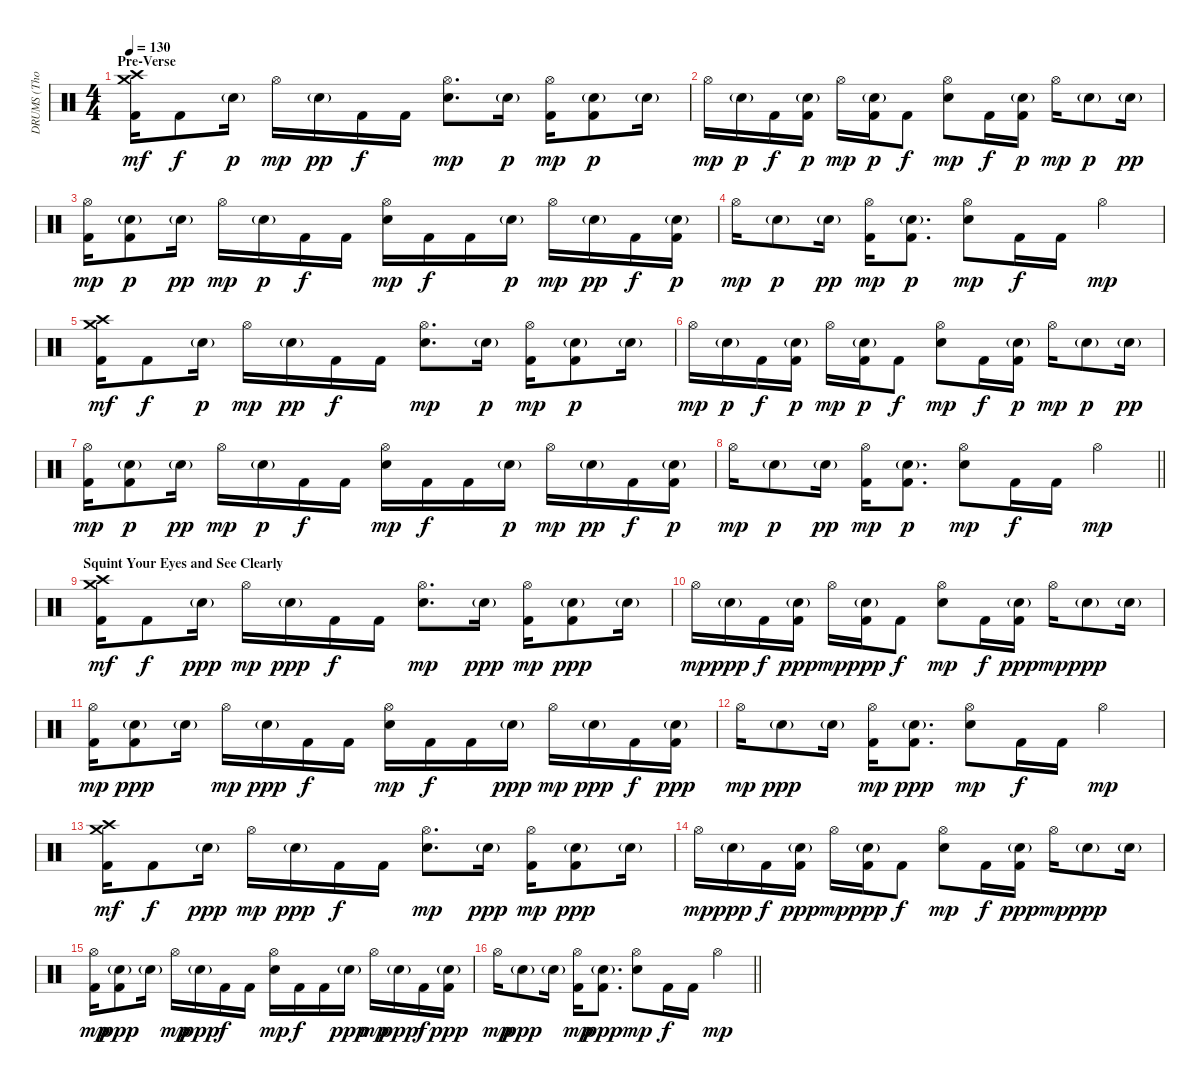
\track ("DRUMS (Thomas Haake)" "DRUMS (Tho") {instrument percussion}
\staff {score}
\articulation defaults
\ts (4 4)
\section ("" "Pre-Verse")
\tempo 130
\clef neutral
\ks c
("Crash high (hit)" "Crash medium (hit)" "Kick (hit) 2").16{dy mf} "Kick (hit) 2".8{dy f} "Electric Snare (hit)"{g}.16{dy p} "Hi-Hat (open)".16{dy mp} "Electric Snare (hit)"{g}.16{dy pp} "Kick (hit) 2".16{dy f} "Kick (hit) 2".16 ("Hi-Hat (open)" "Electric Snare (hit)").8{d dy mp} "Electric Snare (hit)"{g}.16{dy p} ("Hi-Hat (open)" "Kick (hit) 2").16{dy mp} ("Electric Snare (hit)"{g} "Kick (hit) 2").8{dy p} "Electric Snare (hit)"{g}.16 |
"Hi-Hat (open)".16{dy mp} "Electric Snare (hit)"{g}.16{dy p} "Kick (hit) 2".16{dy f} ("Electric Snare (hit)"{g} "Kick (hit) 2").16{dy p} "Hi-Hat (open)".16{dy mp} ("Electric Snare (hit)"{g} "Kick (hit) 2").16{dy p} "Kick (hit) 2".8{dy f} ("Hi-Hat (open)" "Electric Snare (hit)").8{dy mp} "Kick (hit) 2".16{dy f} ("Electric Snare (hit)"{g} "Kick (hit) 2").16{dy p} "Hi-Hat (open)".16{dy mp} "Electric Snare (hit)"{g}.8{dy p} "Electric Snare (hit)"{g}.16{dy pp} |
("Hi-Hat (open)" "Kick (hit) 2").16{dy mp} ("Electric Snare (hit)"{g} "Kick (hit) 2").8{dy p} "Electric Snare (hit)"{g}.16{dy pp} "Hi-Hat (open)".16{dy mp} "Electric Snare (hit)"{g}.16{dy p} "Kick (hit) 2".16{dy f} "Kick (hit) 2".16 ("Hi-Hat (open)" "Electric Snare (hit)").16{dy mp} "Kick (hit) 2".16{dy f} "Kick (hit) 2".16 "Electric Snare (hit)"{g}.16{dy p} "Hi-Hat (open)".16{dy mp} "Electric Snare (hit)"{g}.16{dy pp} "Kick (hit) 2".16{dy f} ("Electric Snare (hit)"{g} "Kick (hit) 2").16{dy p} |
"Hi-Hat (open)".16{dy mp} "Electric Snare (hit)"{g}.8{dy p} "Electric Snare (hit)"{g}.16{dy pp} ("Hi-Hat (open)" "Kick (hit) 2").16{dy mp} ("Electric Snare (hit)"{g} "Kick (hit) 2").8{d dy p} ("Hi-Hat (open)" "Electric Snare (hit)").8{dy mp} "Kick (hit) 2".16{dy f} "Kick (hit) 2".16 "Hi-Hat (open)".4{dy mp} |
("Crash high (hit)" "Crash medium (hit)" "Kick (hit) 2").16{dy mf} "Kick (hit) 2".8{dy f} "Electric Snare (hit)"{g}.16{dy p} "Hi-Hat (open)".16{dy mp} "Electric Snare (hit)"{g}.16{dy pp} "Kick (hit) 2".16{dy f} "Kick (hit) 2".16 ("Hi-Hat (open)" "Electric Snare (hit)").8{d dy mp} "Electric Snare (hit)"{g}.16{dy p} ("Hi-Hat (open)" "Kick (hit) 2").16{dy mp} ("Electric Snare (hit)"{g} "Kick (hit) 2").8{dy p} "Electric Snare (hit)"{g}.16 |
"Hi-Hat (open)".16{dy mp} "Electric Snare (hit)"{g}.16{dy p} "Kick (hit) 2".16{dy f} ("Electric Snare (hit)"{g} "Kick (hit) 2").16{dy p} "Hi-Hat (open)".16{dy mp} ("Electric Snare (hit)"{g} "Kick (hit) 2").16{dy p} "Kick (hit) 2".8{dy f} ("Hi-Hat (open)" "Electric Snare (hit)").8{dy mp} "Kick (hit) 2".16{dy f} ("Electric Snare (hit)"{g} "Kick (hit) 2").16{dy p} "Hi-Hat (open)".16{dy mp} "Electric Snare (hit)"{g}.8{dy p} "Electric Snare (hit)"{g}.16{dy pp} |
("Hi-Hat (open)" "Kick (hit) 2").16{dy mp} ("Electric Snare (hit)"{g} "Kick (hit) 2").8{dy p} "Electric Snare (hit)"{g}.16{dy pp} "Hi-Hat (open)".16{dy mp} "Electric Snare (hit)"{g}.16{dy p} "Kick (hit) 2".16{dy f} "Kick (hit) 2".16 ("Hi-Hat (open)" "Electric Snare (hit)").16{dy mp} "Kick (hit) 2".16{dy f} "Kick (hit) 2".16 "Electric Snare (hit)"{g}.16{dy p} "Hi-Hat (open)".16{dy mp} "Electric Snare (hit)"{g}.16{dy pp} "Kick (hit) 2".16{dy f} ("Electric Snare (hit)"{g} "Kick (hit) 2").16{dy p} |
\barLineRight lightlight "Hi-Hat (open)".16{dy mp} "Electric Snare (hit)"{g}.8{dy p} "Electric Snare (hit)"{g}.16{dy pp}
("Hi-Hat (open)" "Kick (hit) 2").16{dy mp} ("Electric Snare (hit)"{g} "Kick (hit) 2").8{d dy p} ("Hi-Hat (open)" "Electric Snare (hit)").8{dy mp} "Kick (hit) 2".16{dy f} "Kick (hit) 2".16 "Hi-Hat (open)".4{dy mp} |
\section ("" "Squint Your Eyes and See Clearly")
("Crash high (hit)" "Crash medium (hit)" "Kick (hit) 2").16{dy mf} "Kick (hit) 2".8{dy f} "Electric Snare (hit)"{g}.16{dy ppp} "Hi-Hat (open)".16{dy mp} "Electric Snare (hit)"{g}.16{dy ppp} "Kick (hit) 2".16{dy f} "Kick (hit) 2".16 ("Hi-Hat (open)" "Electric Snare (hit)").8{d dy mp} "Electric Snare (hit)"{g}.16{dy ppp} ("Hi-Hat (open)" "Kick (hit) 2").16{dy mp} ("Electric Snare (hit)"{g} "Kick (hit) 2").8{dy ppp} "Electric Snare (hit)"{g}.16 |
"Hi-Hat (open)".16{dy mp} "Electric Snare (hit)"{g}.16{dy ppp} "Kick (hit) 2".16{dy f} ("Electric Snare (hit)"{g} "Kick (hit) 2").16{dy ppp} "Hi-Hat (open)".16{dy mp} ("Electric Snare (hit)"{g} "Kick (hit) 2").16{dy ppp} "Kick (hit) 2".8{dy f} ("Hi-Hat (open)" "Electric Snare (hit)").8{dy mp} "Kick (hit) 2".16{dy f} ("Electric Snare (hit)"{g} "Kick (hit) 2").16{dy ppp} "Hi-Hat (open)".16{dy mp} "Electric Snare (hit)"{g}.8{dy ppp} "Electric Snare (hit)"{g}.16 |
("Hi-Hat (open)" "Kick (hit) 2").16{dy mp} ("Electric Snare (hit)"{g} "Kick (hit) 2").8{dy ppp} "Electric Snare (hit)"{g}.16 "Hi-Hat (open)".16{dy mp} "Electric Snare (hit)"{g}.16{dy ppp} "Kick (hit) 2".16{dy f} "Kick (hit) 2".16 ("Hi-Hat (open)" "Electric Snare (hit)").16{dy mp} "Kick (hit) 2".16{dy f} "Kick (hit) 2".16 "Electric Snare (hit)"{g}.16{dy ppp} "Hi-Hat (open)".16{dy mp} "Electric Snare (hit)"{g}.16{dy ppp} "Kick (hit) 2".16{dy f} ("Electric Snare (hit)"{g} "Kick (hit) 2").16{dy ppp} |
"Hi-Hat (open)".16{dy mp} "Electric Snare (hit)"{g}.8{dy ppp} "Electric Snare (hit)"{g}.16 ("Hi-Hat (open)" "Kick (hit) 2").16{dy mp} ("Electric Snare (hit)"{g} "Kick (hit) 2").8{d dy ppp} ("Hi-Hat (open)" "Electric Snare (hit)").8{dy mp} "Kick (hit) 2".16{dy f} "Kick (hit) 2".16 "Hi-Hat (open)".4{dy mp} |
("Crash high (hit)" "Crash medium (hit)" "Kick (hit) 2").16{dy mf} "Kick (hit) 2".8{dy f} "Electric Snare (hit)"{g}.16{dy ppp} "Hi-Hat (open)".16{dy mp} "Electric Snare (hit)"{g}.16{dy ppp} "Kick (hit) 2".16{dy f} "Kick (hit) 2".16 ("Hi-Hat (open)" "Electric Snare (hit)").8{d dy mp} "Electric Snare (hit)"{g}.16{dy ppp} ("Hi-Hat (open)" "Kick (hit) 2").16{dy mp} ("Electric Snare (hit)"{g} "Kick (hit) 2").8{dy ppp} "Electric Snare (hit)"{g}.16 |
"Hi-Hat (open)".16{dy mp} "Electric Snare (hit)"{g}.16{dy ppp} "Kick (hit) 2".16{dy f} ("Electric Snare (hit)"{g} "Kick (hit) 2").16{dy ppp} "Hi-Hat (open)".16{dy mp} ("Electric Snare (hit)"{g} "Kick (hit) 2").16{dy ppp} "Kick (hit) 2".8{dy f} ("Hi-Hat (open)" "Electric Snare (hit)").8{dy mp} "Kick (hit) 2".16{dy f} ("Electric Snare (hit)"{g} "Kick (hit) 2").16{dy ppp} "Hi-Hat (open)".16{dy mp} "Electric Snare (hit)"{g}.8{dy ppp} "Electric Snare (hit)"{g}.16 |
("Hi-Hat (open)" "Kick (hit) 2").16{dy mp} ("Electric Snare (hit)"{g} "Kick (hit) 2").8{dy ppp} "Electric Snare (hit)"{g}.16 "Hi-Hat (open)".16{dy mp} "Electric Snare (hit)"{g}.16{dy ppp} "Kick (hit) 2".16{dy f} "Kick (hit) 2".16 ("Hi-Hat (open)" "Electric Snare (hit)").16{dy mp} "Kick (hit) 2".16{dy f} "Kick (hit) 2".16 "Electric Snare (hit)"{g}.16{dy ppp} "Hi-Hat (open)".16{dy mp} "Electric Snare (hit)"{g}.16{dy ppp} "Kick (hit) 2".16{dy f} ("Electric Snare (hit)"{g} "Kick (hit) 2").16{dy ppp} |
\barLineRight lightlight "Hi-Hat (open)".16{dy mp} "Electric Snare (hit)"{g}.8{dy ppp} "Electric Snare (hit)"{g}.16
("Hi-Hat (open)" "Kick (hit) 2").16{dy mp} ("Electric Snare (hit)"{g} "Kick (hit) 2").8{d dy ppp} ("Hi-Hat (open)" "Electric Snare (hit)").8{dy mp} "Kick (hit) 2".16{dy f} "Kick (hit) 2".16 "Hi-Hat (open)".4{dy mp}
